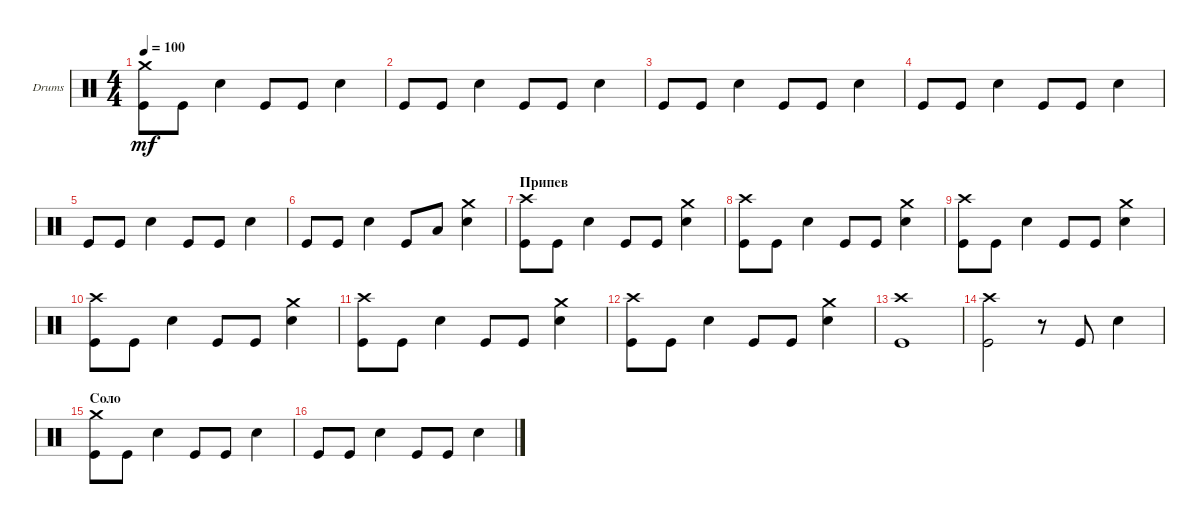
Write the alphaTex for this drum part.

\defaultSystemsLayout 4
\bracketExtendMode groupsimilarinstruments
\firstSystemTrackNameOrientation horizontal
\otherSystemsTrackNameOrientation horizontal
\track ("Е. Кулаков" "Drums") {instrument percussion}
\staff {score}
\articulation defaults
\ts (4 4)
\tempo 100
\clef neutral
\ks c
("Kick (hit)" "Crash medium (hit)").8{dy mf} "Kick (hit)".8 "Snare (hit) 2".4 "Kick (hit)".8 "Kick (hit)".8 "Snare (hit) 2".4 |
"Kick (hit)".8 "Kick (hit)".8 "Snare (hit) 2".4 "Kick (hit)".8 "Kick (hit)".8 "Snare (hit) 2".4 |
"Kick (hit)".8 "Kick (hit)".8 "Snare (hit) 2".4 "Kick (hit)".8 "Kick (hit)".8 "Snare (hit) 2".4 |
"Kick (hit)".8 "Kick (hit)".8 "Snare (hit) 2".4 "Kick (hit)".8 "Kick (hit)".8 "Snare (hit) 2".4 |
"Kick (hit)".8 "Kick (hit)".8 "Snare (hit) 2".4 "Kick (hit)".8 "Kick (hit)".8 "Snare (hit) 2".4 |
"Kick (hit)".8 "Kick (hit)".8 "Snare (hit) 2".4 "Kick (hit)".8 "Low Tom (hit)".8 ("Snare (hit) 2" "Crash medium (hit)").4 |
\section ("" "Припев")
("Kick (hit)" "Crash high (hit)").8 "Kick (hit)".8 "Snare (hit) 2".4 "Kick (hit)".8 "Kick (hit)".8 ("Snare (hit) 2" "Crash medium (hit)").4 |
("Kick (hit)" "Crash high (hit)").8 "Kick (hit)".8 "Snare (hit) 2".4 "Kick (hit)".8 "Kick (hit)".8 ("Snare (hit) 2" "Crash medium (hit)").4 |
("Kick (hit)" "Crash high (hit)").8 "Kick (hit)".8 "Snare (hit) 2".4 "Kick (hit)".8 "Kick (hit)".8 ("Snare (hit) 2" "Crash medium (hit)").4 |
("Kick (hit)" "Crash high (hit)").8 "Kick (hit)".8 "Snare (hit) 2".4 "Kick (hit)".8 "Kick (hit)".8 ("Snare (hit) 2" "Crash medium (hit)").4 |
("Kick (hit)" "Crash high (hit)").8 "Kick (hit)".8 "Snare (hit) 2".4 "Kick (hit)".8 "Kick (hit)".8 ("Snare (hit) 2" "Crash medium (hit)").4 |
("Kick (hit)" "Crash high (hit)").8 "Kick (hit)".8 "Snare (hit) 2".4 "Kick (hit)".8 "Kick (hit)".8 ("Snare (hit) 2" "Crash medium (hit)").4 |
("Kick (hit)" "Crash high (hit)").1 |
("Kick (hit)" "Crash high (hit)").2 r.8 "Kick (hit)".8 "Snare (hit) 2".4 |
\section ("" "Соло")
("Kick (hit)" "Crash medium (hit)").8 "Kick (hit)".8 "Snare (hit) 2".4 "Kick (hit)".8 "Kick (hit)".8 "Snare (hit) 2".4 |
"Kick (hit)".8 "Kick (hit)".8 "Snare (hit) 2".4 "Kick (hit)".8 "Kick (hit)".8 "Snare (hit) 2".4
